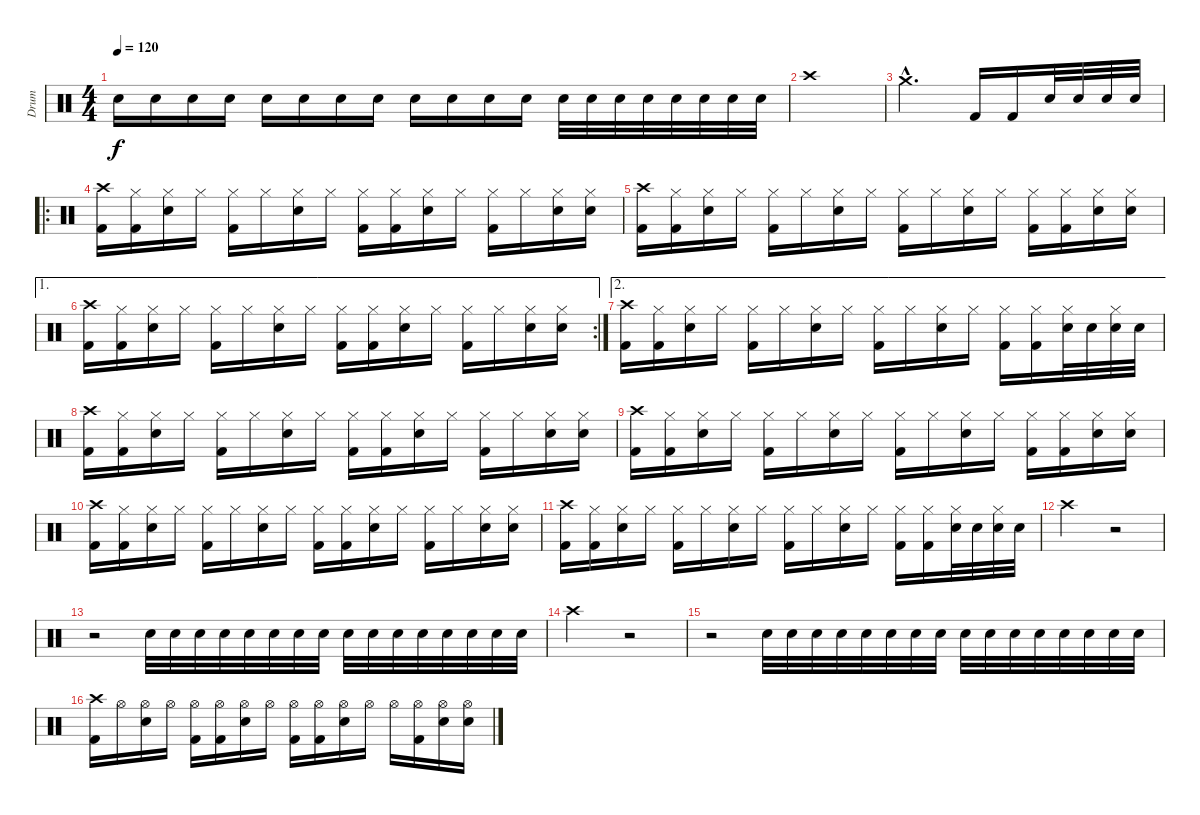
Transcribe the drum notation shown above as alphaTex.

\track ("Drum" "Drum") {instrument percussion}
\staff {score}
\articulation defaults
\ts (4 4)
\tempo 120
\clef neutral
\ks c "Electric Snare (hit)".16{dy f} "Electric Snare (hit)".16 "Electric Snare (hit)".16 "Electric Snare (hit)".16 "Electric Snare (hit)".16 "Electric Snare (hit)".16 "Electric Snare (hit)".16 "Electric Snare (hit)".16 "Electric Snare (hit)".16 "Electric Snare (hit)".16 "Electric Snare (hit)".16 "Electric Snare (hit)".16 "Electric Snare (hit)".32 "Electric Snare (hit)".32 "Electric Snare (hit)".32 "Electric Snare (hit)".32 "Electric Snare (hit)".32 "Electric Snare (hit)".32 "Electric Snare (hit)".32 "Electric Snare (hit)".32
|
"Crash high (hit)".1 |
"Crash medium (hit)"{hac}.2{d} "Kick (hit) 2".16 "Kick (hit) 2".16 "Electric Snare (hit)".32 "Electric Snare (hit)".32 "Electric Snare (hit)".32 "Electric Snare (hit)".32 |
\ro
("Crash high (hit)" "Kick (hit) 2").16 ("Hi-Hat (closed)" "Kick (hit) 2").16 ("Hi-Hat (closed)" "Electric Snare (hit)").16 "Hi-Hat (closed)".16 ("Hi-Hat (closed)" "Kick (hit) 2").16 "Hi-Hat (closed)".16 ("Hi-Hat (closed)" "Electric Snare (hit)").16 "Hi-Hat (closed)".16 ("Hi-Hat (closed)" "Kick (hit) 2").16 ("Hi-Hat (closed)" "Kick (hit) 2").16 ("Hi-Hat (closed)" "Electric Snare (hit)").16 "Hi-Hat (closed)".16 ("Hi-Hat (closed)" "Kick (hit) 2").16 "Hi-Hat (closed)".16 ("Hi-Hat (closed)" "Electric Snare (hit)").16 ("Hi-Hat (closed)" "Electric Snare (hit)").16 |
("Crash high (hit)" "Kick (hit) 2").16 ("Hi-Hat (closed)" "Kick (hit) 2").16 ("Hi-Hat (closed)" "Electric Snare (hit)").16 "Hi-Hat (closed)".16 ("Hi-Hat (closed)" "Kick (hit) 2").16 "Hi-Hat (closed)".16 ("Hi-Hat (closed)" "Electric Snare (hit)").16 "Hi-Hat (closed)".16 ("Hi-Hat (closed)" "Kick (hit) 2").16 "Hi-Hat (closed)".16 ("Hi-Hat (closed)" "Electric Snare (hit)").16 "Hi-Hat (closed)".16 ("Hi-Hat (closed)" "Kick (hit) 2").16 ("Hi-Hat (closed)" "Kick (hit) 2").16 ("Hi-Hat (closed)" "Electric Snare (hit)").16 ("Hi-Hat (closed)" "Electric Snare (hit)").16 |
\ae 1
\rc 2
("Crash high (hit)" "Kick (hit) 2").16 ("Hi-Hat (closed)" "Kick (hit) 2").16 ("Hi-Hat (closed)" "Electric Snare (hit)").16 "Hi-Hat (closed)".16 ("Hi-Hat (closed)" "Kick (hit) 2").16 "Hi-Hat (closed)".16 ("Hi-Hat (closed)" "Electric Snare (hit)").16 "Hi-Hat (closed)".16 ("Hi-Hat (closed)" "Kick (hit) 2").16 ("Hi-Hat (closed)" "Kick (hit) 2").16 ("Hi-Hat (closed)" "Electric Snare (hit)").16 "Hi-Hat (closed)".16 ("Hi-Hat (closed)" "Kick (hit) 2").16 "Hi-Hat (closed)".16 ("Hi-Hat (closed)" "Electric Snare (hit)").16 ("Hi-Hat (closed)" "Electric Snare (hit)").16 |
\ae 2
("Crash high (hit)" "Kick (hit) 2").16 ("Hi-Hat (closed)" "Kick (hit) 2").16 ("Hi-Hat (closed)" "Electric Snare (hit)").16 "Hi-Hat (closed)".16 ("Hi-Hat (closed)" "Kick (hit) 2").16 "Hi-Hat (closed)".16 ("Hi-Hat (closed)" "Electric Snare (hit)").16 "Hi-Hat (closed)".16 ("Hi-Hat (closed)" "Kick (hit) 2").16 "Hi-Hat (closed)".16 ("Hi-Hat (closed)" "Electric Snare (hit)").16 "Hi-Hat (closed)".16 ("Hi-Hat (closed)" "Kick (hit) 2").16 ("Hi-Hat (closed)" "Kick (hit) 2").16 ("Hi-Hat (closed)" "Electric Snare (hit)").32 "Electric Snare (hit)".32 ("Hi-Hat (closed)" "Electric Snare (hit)").32 "Electric Snare (hit)".32 |
("Crash high (hit)" "Kick (hit) 2").16 ("Hi-Hat (closed)" "Kick (hit) 2").16 ("Hi-Hat (closed)" "Electric Snare (hit)").16 "Hi-Hat (closed)".16 ("Hi-Hat (closed)" "Kick (hit) 2").16 "Hi-Hat (closed)".16 ("Hi-Hat (closed)" "Electric Snare (hit)").16 "Hi-Hat (closed)".16 ("Hi-Hat (closed)" "Kick (hit) 2").16 ("Hi-Hat (closed)" "Kick (hit) 2").16 ("Hi-Hat (closed)" "Electric Snare (hit)").16 "Hi-Hat (closed)".16 ("Hi-Hat (closed)" "Kick (hit) 2").16 "Hi-Hat (closed)".16 ("Hi-Hat (closed)" "Electric Snare (hit)").16 ("Hi-Hat (closed)" "Electric Snare (hit)").16 |
("Crash high (hit)" "Kick (hit) 2").16 ("Hi-Hat (closed)" "Kick (hit) 2").16 ("Hi-Hat (closed)" "Electric Snare (hit)").16 "Hi-Hat (closed)".16 ("Hi-Hat (closed)" "Kick (hit) 2").16 "Hi-Hat (closed)".16 ("Hi-Hat (closed)" "Electric Snare (hit)").16 "Hi-Hat (closed)".16 ("Hi-Hat (closed)" "Kick (hit) 2").16 "Hi-Hat (closed)".16 ("Hi-Hat (closed)" "Electric Snare (hit)").16 "Hi-Hat (closed)".16 ("Hi-Hat (closed)" "Kick (hit) 2").16 ("Hi-Hat (closed)" "Kick (hit) 2").16 ("Hi-Hat (closed)" "Electric Snare (hit)").16 ("Hi-Hat (closed)" "Electric Snare (hit)").16 |
("Crash high (hit)" "Kick (hit) 2").16 ("Hi-Hat (closed)" "Kick (hit) 2").16 ("Hi-Hat (closed)" "Electric Snare (hit)").16 "Hi-Hat (closed)".16 ("Hi-Hat (closed)" "Kick (hit) 2").16 "Hi-Hat (closed)".16 ("Hi-Hat (closed)" "Electric Snare (hit)").16 "Hi-Hat (closed)".16 ("Hi-Hat (closed)" "Kick (hit) 2").16 ("Hi-Hat (closed)" "Kick (hit) 2").16 ("Hi-Hat (closed)" "Electric Snare (hit)").16 "Hi-Hat (closed)".16 ("Hi-Hat (closed)" "Kick (hit) 2").16 "Hi-Hat (closed)".16 ("Hi-Hat (closed)" "Electric Snare (hit)").16 ("Hi-Hat (closed)" "Electric Snare (hit)").16 |
("Crash high (hit)" "Kick (hit) 2").16 ("Hi-Hat (closed)" "Kick (hit) 2").16 ("Hi-Hat (closed)" "Electric Snare (hit)").16 "Hi-Hat (closed)".16 ("Hi-Hat (closed)" "Kick (hit) 2").16 "Hi-Hat (closed)".16 ("Hi-Hat (closed)" "Electric Snare (hit)").16 "Hi-Hat (closed)".16 ("Hi-Hat (closed)" "Kick (hit) 2").16 "Hi-Hat (closed)".16 ("Hi-Hat (closed)" "Electric Snare (hit)").16 "Hi-Hat (closed)".16 ("Hi-Hat (closed)" "Kick (hit) 2").16 ("Hi-Hat (closed)" "Kick (hit) 2").16 ("Hi-Hat (closed)" "Electric Snare (hit)").32 "Electric Snare (hit)".32 ("Hi-Hat (closed)" "Electric Snare (hit)").32 "Electric Snare (hit)".32 |
"Crash high (hit)".2 r.2 |
r.2{volume 0} "Electric Snare (hit)".32{volume 16} "Electric Snare (hit)".32 "Electric Snare (hit)".32 "Electric Snare (hit)".32 "Electric Snare (hit)".32 "Electric Snare (hit)".32 "Electric Snare (hit)".32 "Electric Snare (hit)".32 "Electric Snare (hit)".32 "Electric Snare (hit)".32 "Electric Snare (hit)".32 "Electric Snare (hit)".32 "Electric Snare (hit)".32 "Electric Snare (hit)".32 "Electric Snare (hit)".32 "Electric Snare (hit)".32 |
"Crash high (hit)".2 r.2 |
r.2{volume 0} "Electric Snare (hit)".32{volume 16} "Electric Snare (hit)".32 "Electric Snare (hit)".32 "Electric Snare (hit)".32 "Electric Snare (hit)".32 "Electric Snare (hit)".32 "Electric Snare (hit)".32 "Electric Snare (hit)".32 "Electric Snare (hit)".32 "Electric Snare (hit)".32 "Electric Snare (hit)".32 "Electric Snare (hit)".32 "Electric Snare (hit)".32 "Electric Snare (hit)".32 "Electric Snare (hit)".32 "Electric Snare (hit)".32 |
("Crash high (hit)" "Kick (hit) 2").16 "Hi-Hat (open)".16 ("Hi-Hat (open)" "Electric Snare (hit)").16 "Hi-Hat (open)".16 ("Hi-Hat (open)" "Kick (hit) 2").16 ("Hi-Hat (open)" "Kick (hit) 2").16 ("Hi-Hat (open)" "Electric Snare (hit)").16 "Hi-Hat (open)".16 ("Hi-Hat (open)" "Kick (hit) 2").16 ("Hi-Hat (open)" "Kick (hit) 2").16 ("Hi-Hat (open)" "Electric Snare (hit)").16 "Hi-Hat (open)".16 "Hi-Hat (open)".16 ("Hi-Hat (open)" "Kick (hit) 2").16 ("Hi-Hat (open)" "Electric Snare (hit)").16 ("Hi-Hat (open)" "Electric Snare (hit)").16
